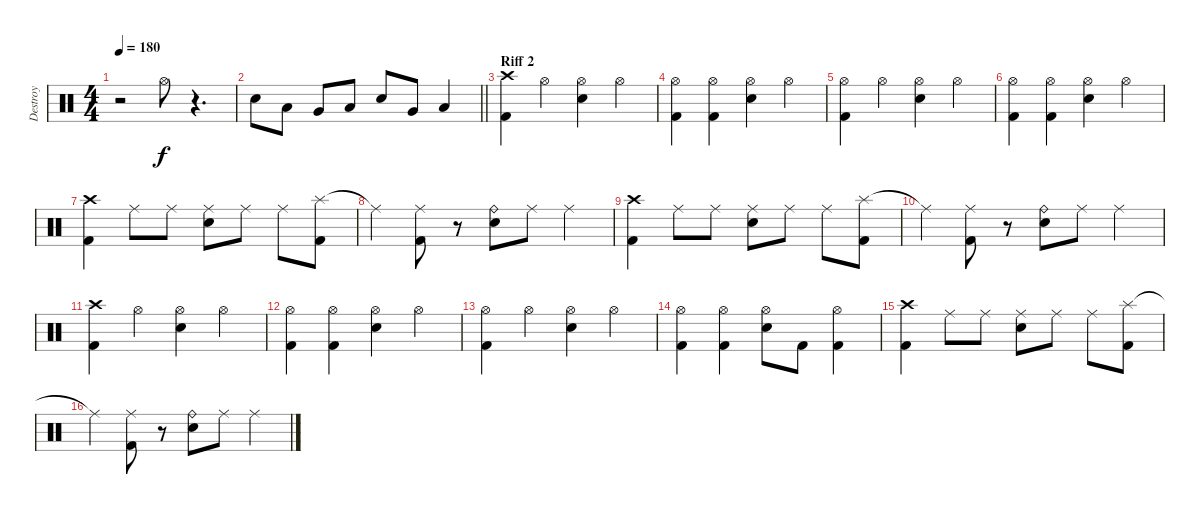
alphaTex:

\track ("Destroy" "Destroy") {instrument percussion}
\staff {score}
\articulation defaults
\ts (4 4)
\tempo 180
\clef neutral
\ks c
r.2{dy f} "Hi-Hat (open)".8 r.4{d} |
\barLineRight lightlight "Snare (hit) 2".8 "Low Tom (hit)".8 "Very Low Tom (hit)".8 "Low Floor Tom (hit)".8 "Snare (hit) 2".8 "Very Low Tom (hit)".8 "Low Floor Tom (hit)".4
|
\section ("" "Riff 2")
("Crash high (hit)" "Kick (hit) 2").4 "Hi-Hat (open)".4 ("Hi-Hat (open)" "Snare (hit) 2").4 "Hi-Hat (open)".4 |
("Hi-Hat (open)" "Kick (hit) 2").4 ("Hi-Hat (open)" "Kick (hit) 2").4 ("Hi-Hat (open)" "Snare (hit) 2").4 "Hi-Hat (open)".4 |
("Hi-Hat (open)" "Kick (hit) 2").4 "Hi-Hat (open)".4 ("Hi-Hat (open)" "Snare (hit) 2").4 "Hi-Hat (open)".4 |
("Hi-Hat (open)" "Kick (hit) 2").4 ("Hi-Hat (open)" "Kick (hit) 2").4 ("Hi-Hat (open)" "Snare (hit) 2").4 "Hi-Hat (open)".4 |
("Crash high (hit)" "Kick (hit) 2").4 "Ride (middle)".8 "Ride (middle)".8 ("Ride (middle)" "Snare (hit) 2").8 "Ride (middle)".8 "Ride (middle)".8 ("Splash (hit)" "Kick (hit) 2").8 |
"Ride (middle)"{t}.4 ("Ride (middle)" "Kick (hit) 2").8 r.8 ("Ride (bell)" "Snare (hit) 2").8 "Ride (middle)".8 "Ride (middle)".4 |
("Crash high (hit)" "Kick (hit) 2").4 "Ride (middle)".8 "Ride (middle)".8 ("Ride (middle)" "Snare (hit) 2").8 "Ride (middle)".8 "Ride (middle)".8 ("Splash (hit)" "Kick (hit) 2").8 |
"Ride (middle)"{t}.4 ("Ride (middle)" "Kick (hit) 2").8 r.8 ("Ride (bell)" "Snare (hit) 2").8 "Ride (middle)".8 "Ride (middle)".4 |
("Crash high (hit)" "Kick (hit) 2").4 "Hi-Hat (open)".4 ("Hi-Hat (open)" "Snare (hit) 2").4 "Hi-Hat (open)".4 |
("Hi-Hat (open)" "Kick (hit) 2").4 ("Hi-Hat (open)" "Kick (hit) 2").4 ("Hi-Hat (open)" "Snare (hit) 2").4 "Hi-Hat (open)".4 |
("Hi-Hat (open)" "Kick (hit) 2").4 "Hi-Hat (open)".4 ("Hi-Hat (open)" "Snare (hit) 2").4 "Hi-Hat (open)".4 |
("Hi-Hat (open)" "Kick (hit) 2").4 ("Hi-Hat (open)" "Kick (hit) 2").4 ("Hi-Hat (open)" "Snare (hit) 2").8 "Kick (hit) 2".8 ("Hi-Hat (open)" "Kick (hit) 2").4 |
("Crash high (hit)" "Kick (hit) 2").4 "Ride (middle)".8 "Ride (middle)".8 ("Ride (middle)" "Snare (hit) 2").8 "Ride (middle)".8 "Ride (middle)".8 ("Splash (hit)" "Kick (hit) 2").8 |
"Ride (middle)"{t}.4 ("Ride (middle)" "Kick (hit) 2").8 r.8 ("Ride (bell)" "Snare (hit) 2").8 "Ride (middle)".8 "Ride (middle)".4
